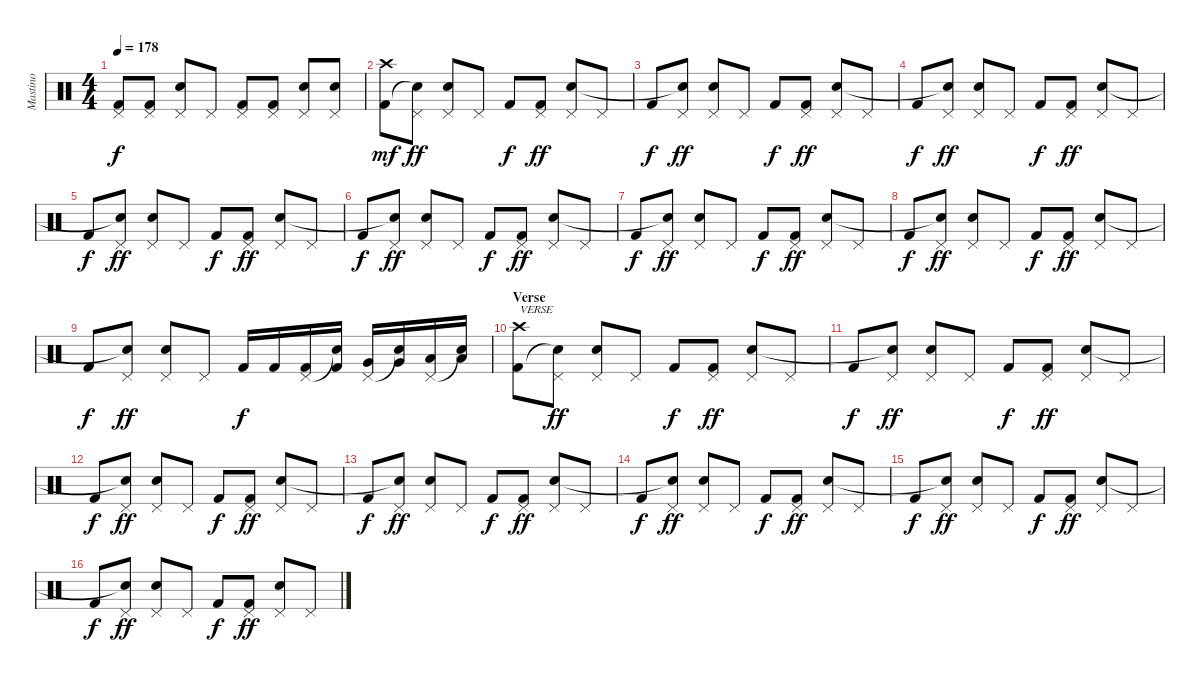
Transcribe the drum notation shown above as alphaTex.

\track ("Mastino" "Mastino") {instrument percussion}
\staff {score}
\articulation defaults
\ts (4 4)
\tempo 178
\clef neutral
\ks c
("Pedal Hi-Hat (hit)" "Kick (hit) 2").8{dy f} ("Pedal Hi-Hat (hit)" "Kick (hit) 2").8 ("Pedal Hi-Hat (hit)" "Electric Snare (hit)").8 "Pedal Hi-Hat (hit)".8 ("Pedal Hi-Hat (hit)" "Kick (hit) 2").8 ("Pedal Hi-Hat (hit)" "Kick (hit) 2").8 ("Pedal Hi-Hat (hit)" "Electric Snare (hit)").8 ("Pedal Hi-Hat (hit)" "Electric Snare (hit)").8 |
("Crash high (hit)" "Kick (hit) 2").8{dy mf} ("Pedal Hi-Hat (hit)" "Snare (hit)"{t}).8{dy ff} ("Pedal Hi-Hat (hit)" "Electric Snare (hit)").8 "Pedal Hi-Hat (hit)".8 "Kick (hit) 2".8{dy f} ("Pedal Hi-Hat (hit)" "Kick (hit) 2").8{dy ff} ("Pedal Hi-Hat (hit)" "Electric Snare (hit)").8 "Pedal Hi-Hat (hit)".8 |
"Kick (hit) 2".8{dy f} ("Pedal Hi-Hat (hit)" "Snare (hit)"{t}).8{dy ff} ("Pedal Hi-Hat (hit)" "Electric Snare (hit)").8 "Pedal Hi-Hat (hit)".8 "Kick (hit) 2".8{dy f} ("Pedal Hi-Hat (hit)" "Kick (hit) 2").8{dy ff} ("Pedal Hi-Hat (hit)" "Electric Snare (hit)").8 "Pedal Hi-Hat (hit)".8 |
"Kick (hit) 2".8{dy f} ("Pedal Hi-Hat (hit)" "Snare (hit)"{t}).8{dy ff} ("Pedal Hi-Hat (hit)" "Electric Snare (hit)").8 "Pedal Hi-Hat (hit)".8 "Kick (hit) 2".8{dy f} ("Pedal Hi-Hat (hit)" "Kick (hit) 2").8{dy ff} ("Pedal Hi-Hat (hit)" "Electric Snare (hit)").8 "Pedal Hi-Hat (hit)".8 |
"Kick (hit) 2".8{dy f} ("Pedal Hi-Hat (hit)" "Snare (hit)"{t}).8{dy ff} ("Pedal Hi-Hat (hit)" "Electric Snare (hit)").8 "Pedal Hi-Hat (hit)".8 "Kick (hit) 2".8{dy f} ("Pedal Hi-Hat (hit)" "Kick (hit) 2").8{dy ff} ("Pedal Hi-Hat (hit)" "Electric Snare (hit)").8 "Pedal Hi-Hat (hit)".8 |
"Kick (hit) 2".8{dy f} ("Pedal Hi-Hat (hit)" "Snare (hit)"{t}).8{dy ff} ("Pedal Hi-Hat (hit)" "Electric Snare (hit)").8 "Pedal Hi-Hat (hit)".8 "Kick (hit) 2".8{dy f} ("Pedal Hi-Hat (hit)" "Kick (hit) 2").8{dy ff} ("Pedal Hi-Hat (hit)" "Electric Snare (hit)").8 "Pedal Hi-Hat (hit)".8 |
"Kick (hit) 2".8{dy f} ("Pedal Hi-Hat (hit)" "Snare (hit)"{t}).8{dy ff} ("Pedal Hi-Hat (hit)" "Electric Snare (hit)").8 "Pedal Hi-Hat (hit)".8 "Kick (hit) 2".8{dy f} ("Pedal Hi-Hat (hit)" "Kick (hit) 2").8{dy ff} ("Pedal Hi-Hat (hit)" "Electric Snare (hit)").8 "Pedal Hi-Hat (hit)".8 |
"Kick (hit) 2".8{dy f} ("Pedal Hi-Hat (hit)" "Snare (hit)"{t}).8{dy ff} ("Pedal Hi-Hat (hit)" "Electric Snare (hit)").8 "Pedal Hi-Hat (hit)".8 "Kick (hit) 2".8{dy f} ("Pedal Hi-Hat (hit)" "Kick (hit) 2").8{dy ff} ("Pedal Hi-Hat (hit)" "Electric Snare (hit)").8 "Pedal Hi-Hat (hit)".8 |
"Kick (hit) 2".8{dy f} ("Pedal Hi-Hat (hit)" "Snare (hit)"{t}).8{dy ff} ("Pedal Hi-Hat (hit)" "Electric Snare (hit)").8 "Pedal Hi-Hat (hit)".8 "Kick (hit) 2".16{dy f} "Kick (hit) 2".16 ("Pedal Hi-Hat (hit)" "Kick (hit) 2").16 ("Snare (hit)"{t} "Kick (hit) 2").16 ("Pedal Hi-Hat (hit)" "Very Low Tom (hit)").16 ("Snare (hit)"{t} "Very Low Tom (hit)").16 ("Pedal Hi-Hat (hit)" "Low Floor Tom (hit)").16 ("Snare (hit)"{t} "Low Floor Tom (hit)").16 |
\section ("" "Verse")
("Crash high (hit)" "Kick (hit) 2").8{txt "VERSE"} ("Pedal Hi-Hat (hit)" "Snare (hit)"{t}).8{dy ff} ("Pedal Hi-Hat (hit)" "Electric Snare (hit)").8 "Pedal Hi-Hat (hit)".8 "Kick (hit) 2".8{dy f} ("Pedal Hi-Hat (hit)" "Kick (hit) 2").8{dy ff} ("Pedal Hi-Hat (hit)" "Electric Snare (hit)").8 "Pedal Hi-Hat (hit)".8 |
"Kick (hit) 2".8{dy f} ("Pedal Hi-Hat (hit)" "Snare (hit)"{t}).8{dy ff} ("Pedal Hi-Hat (hit)" "Electric Snare (hit)").8 "Pedal Hi-Hat (hit)".8 "Kick (hit) 2".8{dy f} ("Pedal Hi-Hat (hit)" "Kick (hit) 2").8{dy ff} ("Pedal Hi-Hat (hit)" "Electric Snare (hit)").8 "Pedal Hi-Hat (hit)".8 |
"Kick (hit) 2".8{dy f} ("Pedal Hi-Hat (hit)" "Snare (hit)"{t}).8{dy ff} ("Pedal Hi-Hat (hit)" "Electric Snare (hit)").8 "Pedal Hi-Hat (hit)".8 "Kick (hit) 2".8{dy f} ("Pedal Hi-Hat (hit)" "Kick (hit) 2").8{dy ff} ("Pedal Hi-Hat (hit)" "Electric Snare (hit)").8 "Pedal Hi-Hat (hit)".8 |
"Kick (hit) 2".8{dy f} ("Pedal Hi-Hat (hit)" "Snare (hit)"{t}).8{dy ff} ("Pedal Hi-Hat (hit)" "Electric Snare (hit)").8 "Pedal Hi-Hat (hit)".8 "Kick (hit) 2".8{dy f} ("Pedal Hi-Hat (hit)" "Kick (hit) 2").8{dy ff} ("Pedal Hi-Hat (hit)" "Electric Snare (hit)").8 "Pedal Hi-Hat (hit)".8 |
"Kick (hit) 2".8{dy f} ("Pedal Hi-Hat (hit)" "Snare (hit)"{t}).8{dy ff} ("Pedal Hi-Hat (hit)" "Electric Snare (hit)").8 "Pedal Hi-Hat (hit)".8 "Kick (hit) 2".8{dy f} ("Pedal Hi-Hat (hit)" "Kick (hit) 2").8{dy ff} ("Pedal Hi-Hat (hit)" "Electric Snare (hit)").8 "Pedal Hi-Hat (hit)".8 |
"Kick (hit) 2".8{dy f} ("Pedal Hi-Hat (hit)" "Snare (hit)"{t}).8{dy ff} ("Pedal Hi-Hat (hit)" "Electric Snare (hit)").8 "Pedal Hi-Hat (hit)".8 "Kick (hit) 2".8{dy f} ("Pedal Hi-Hat (hit)" "Kick (hit) 2").8{dy ff} ("Pedal Hi-Hat (hit)" "Electric Snare (hit)").8 "Pedal Hi-Hat (hit)".8 |
"Kick (hit) 2".8{dy f} ("Pedal Hi-Hat (hit)" "Snare (hit)"{t}).8{dy ff} ("Pedal Hi-Hat (hit)" "Electric Snare (hit)").8 "Pedal Hi-Hat (hit)".8 "Kick (hit) 2".8{dy f} ("Pedal Hi-Hat (hit)" "Kick (hit) 2").8{dy ff} ("Pedal Hi-Hat (hit)" "Electric Snare (hit)").8 "Pedal Hi-Hat (hit)".8
